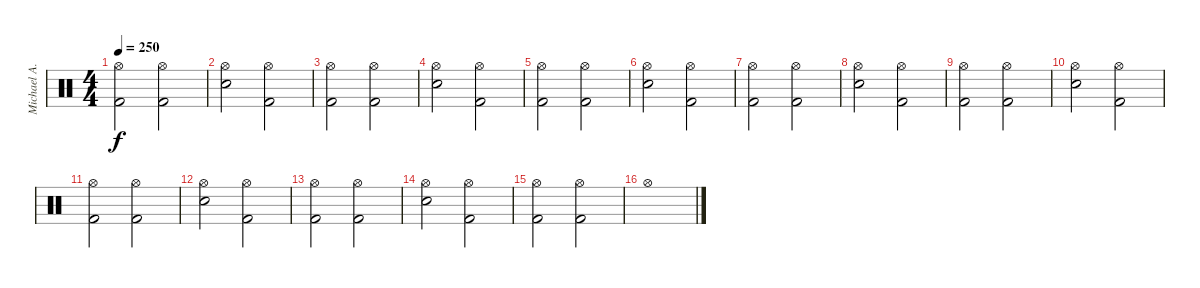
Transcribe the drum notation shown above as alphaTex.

\track ("Michael A." "Michael A.") {instrument percussion}
\staff {score}
\articulation defaults
\ts (4 4)
\tempo 250
\clef neutral
\ks c
("Hi-Hat (open)" "Kick (hit) 2").2{dy f} ("Hi-Hat (open)" "Kick (hit) 2").2 |
("Hi-Hat (open)" "Electric Snare (hit)").2 ("Hi-Hat (open)" "Kick (hit) 2").2 |
("Hi-Hat (open)" "Kick (hit) 2").2 ("Hi-Hat (open)" "Kick (hit) 2").2 |
("Hi-Hat (open)" "Electric Snare (hit)").2 ("Hi-Hat (open)" "Kick (hit) 2").2 |
("Hi-Hat (open)" "Kick (hit) 2").2 ("Hi-Hat (open)" "Kick (hit) 2").2 |
("Hi-Hat (open)" "Electric Snare (hit)").2 ("Hi-Hat (open)" "Kick (hit) 2").2 |
("Hi-Hat (open)" "Kick (hit) 2").2 ("Hi-Hat (open)" "Kick (hit) 2").2 |
("Hi-Hat (open)" "Electric Snare (hit)").2 ("Hi-Hat (open)" "Kick (hit) 2").2 |
("Hi-Hat (open)" "Kick (hit) 2").2 ("Hi-Hat (open)" "Kick (hit) 2").2 |
("Hi-Hat (open)" "Electric Snare (hit)").2 ("Hi-Hat (open)" "Kick (hit) 2").2 |
("Hi-Hat (open)" "Kick (hit) 2").2 ("Hi-Hat (open)" "Kick (hit) 2").2 |
("Hi-Hat (open)" "Electric Snare (hit)").2 ("Hi-Hat (open)" "Kick (hit) 2").2 |
("Hi-Hat (open)" "Kick (hit) 2").2 ("Hi-Hat (open)" "Kick (hit) 2").2 |
("Hi-Hat (open)" "Electric Snare (hit)").2 ("Hi-Hat (open)" "Kick (hit) 2").2 |
("Hi-Hat (open)" "Kick (hit) 2").2 ("Hi-Hat (open)" "Kick (hit) 2").2 |
"Hi-Hat (open)".1
